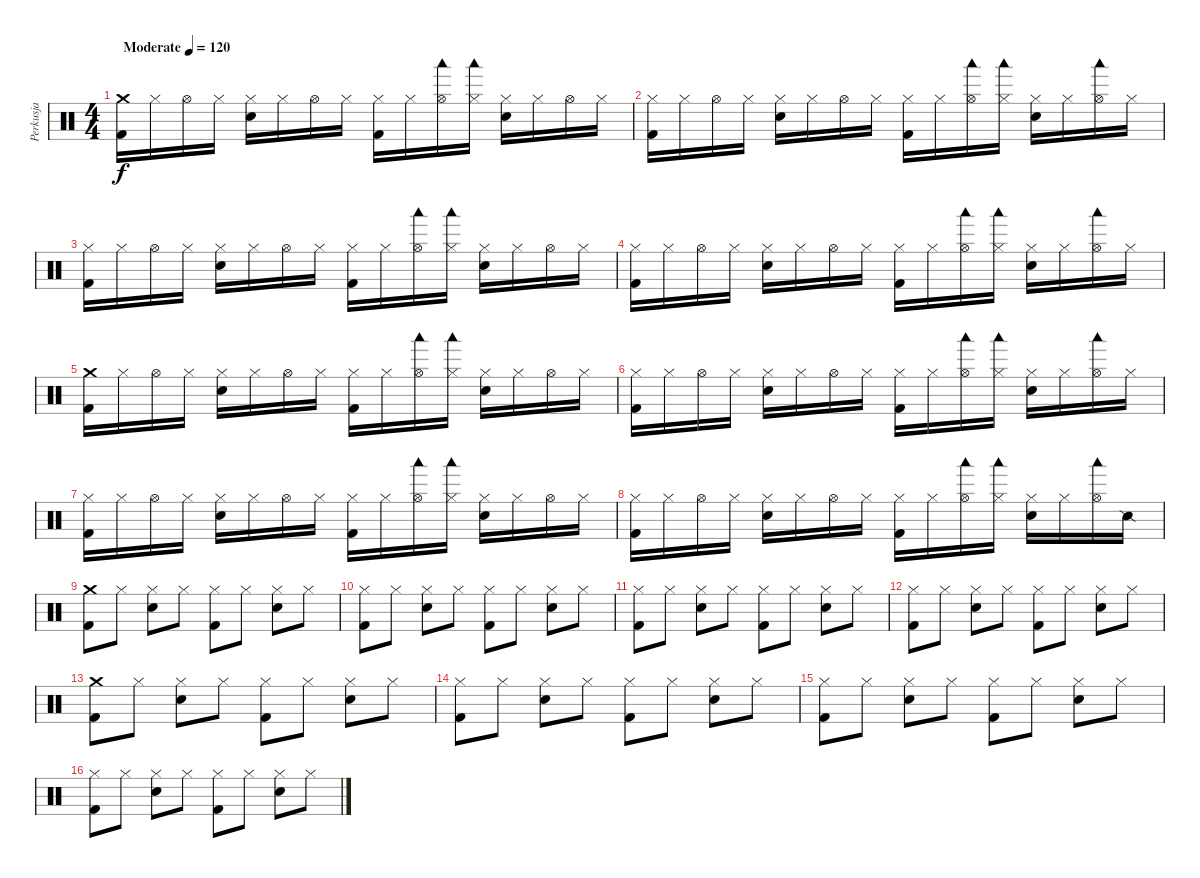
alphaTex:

\track ("Perkusja" "Perkusja") {instrument percussion}
\staff {score}
\articulation defaults
\ts (4 4)
\tempo (120 "Moderate")
\clef neutral
\ks c
("Crash medium (hit)" "Kick (hit) 2").16{dy f} "Hi-Hat (closed)".16 "Hi-Hat (open)".16 "Hi-Hat (closed)".16 ("Hi-Hat (closed)" "Snare (hit) 2").16 "Hi-Hat (closed)".16 "Hi-Hat (open)".16 "Hi-Hat (closed)".16 ("Hi-Hat (closed)" "Kick (hit) 2").16 "Hi-Hat (closed)".16 ("Hi-Hat (open)" "Woodblock low (hit)").16 ("Hi-Hat (closed)" "Woodblock low (hit)").16 ("Hi-Hat (closed)" "Snare (hit) 2").16 "Hi-Hat (closed)".16 "Hi-Hat (open)".16 "Hi-Hat (closed)".16 |
("Hi-Hat (closed)" "Kick (hit) 2").16 "Hi-Hat (closed)".16 "Hi-Hat (open)".16 "Hi-Hat (closed)".16 ("Hi-Hat (closed)" "Snare (hit) 2").16 "Hi-Hat (closed)".16 "Hi-Hat (open)".16 "Hi-Hat (closed)".16 ("Hi-Hat (closed)" "Kick (hit) 2").16 "Hi-Hat (closed)".16 ("Hi-Hat (open)" "Woodblock low (hit)").16 ("Hi-Hat (closed)" "Woodblock low (hit)").16 ("Hi-Hat (closed)" "Snare (hit) 2").16 "Hi-Hat (closed)".16 ("Hi-Hat (open)" "Woodblock low (hit)").16 "Hi-Hat (closed)".16 |
("Hi-Hat (closed)" "Kick (hit) 2").16 "Hi-Hat (closed)".16 "Hi-Hat (open)".16 "Hi-Hat (closed)".16 ("Hi-Hat (closed)" "Snare (hit) 2").16 "Hi-Hat (closed)".16 "Hi-Hat (open)".16 "Hi-Hat (closed)".16 ("Hi-Hat (closed)" "Kick (hit) 2").16 "Hi-Hat (closed)".16 ("Hi-Hat (open)" "Woodblock low (hit)").16 ("Hi-Hat (closed)" "Woodblock low (hit)").16 ("Hi-Hat (closed)" "Snare (hit) 2").16 "Hi-Hat (closed)".16 "Hi-Hat (open)".16 "Hi-Hat (closed)".16 |
("Hi-Hat (closed)" "Kick (hit) 2").16 "Hi-Hat (closed)".16 "Hi-Hat (open)".16 "Hi-Hat (closed)".16 ("Hi-Hat (closed)" "Snare (hit) 2").16 "Hi-Hat (closed)".16 "Hi-Hat (open)".16 "Hi-Hat (closed)".16 ("Hi-Hat (closed)" "Kick (hit) 2").16 "Hi-Hat (closed)".16 ("Hi-Hat (open)" "Woodblock low (hit)").16 ("Hi-Hat (closed)" "Woodblock low (hit)").16 ("Hi-Hat (closed)" "Snare (hit) 2").16 "Hi-Hat (closed)".16 ("Hi-Hat (open)" "Woodblock low (hit)").16 "Hi-Hat (closed)".16 |
("Crash medium (hit)" "Kick (hit) 2").16 "Hi-Hat (closed)".16 "Hi-Hat (open)".16 "Hi-Hat (closed)".16 ("Hi-Hat (closed)" "Snare (hit) 2").16 "Hi-Hat (closed)".16 "Hi-Hat (open)".16 "Hi-Hat (closed)".16 ("Hi-Hat (closed)" "Kick (hit) 2").16 "Hi-Hat (closed)".16 ("Hi-Hat (open)" "Woodblock low (hit)").16 ("Hi-Hat (closed)" "Woodblock low (hit)").16 ("Hi-Hat (closed)" "Snare (hit) 2").16 "Hi-Hat (closed)".16 "Hi-Hat (open)".16 "Hi-Hat (closed)".16 |
("Hi-Hat (closed)" "Kick (hit) 2").16 "Hi-Hat (closed)".16 "Hi-Hat (open)".16 "Hi-Hat (closed)".16 ("Hi-Hat (closed)" "Snare (hit) 2").16 "Hi-Hat (closed)".16 "Hi-Hat (open)".16 "Hi-Hat (closed)".16 ("Hi-Hat (closed)" "Kick (hit) 2").16 "Hi-Hat (closed)".16 ("Hi-Hat (open)" "Woodblock low (hit)").16 ("Hi-Hat (closed)" "Woodblock low (hit)").16 ("Hi-Hat (closed)" "Snare (hit) 2").16 "Hi-Hat (closed)".16 ("Hi-Hat (open)" "Woodblock low (hit)").16 "Hi-Hat (closed)".16 |
("Hi-Hat (closed)" "Kick (hit) 2").16 "Hi-Hat (closed)".16 "Hi-Hat (open)".16 "Hi-Hat (closed)".16 ("Hi-Hat (closed)" "Snare (hit) 2").16 "Hi-Hat (closed)".16 "Hi-Hat (open)".16 "Hi-Hat (closed)".16 ("Hi-Hat (closed)" "Kick (hit) 2").16 "Hi-Hat (closed)".16 ("Hi-Hat (open)" "Woodblock low (hit)").16 ("Hi-Hat (closed)" "Woodblock low (hit)").16 ("Hi-Hat (closed)" "Snare (hit) 2").16 "Hi-Hat (closed)".16 "Hi-Hat (open)".16 "Hi-Hat (closed)".16 |
("Hi-Hat (closed)" "Kick (hit) 2").16 "Hi-Hat (closed)".16 "Hi-Hat (open)".16 "Hi-Hat (closed)".16 ("Hi-Hat (closed)" "Snare (hit) 2").16 "Hi-Hat (closed)".16 "Hi-Hat (open)".16 "Hi-Hat (closed)".16 ("Hi-Hat (closed)" "Kick (hit) 2").16 "Hi-Hat (closed)".16 ("Hi-Hat (open)" "Woodblock low (hit)").16 ("Hi-Hat (closed)" "Woodblock low (hit)").16 ("Hi-Hat (closed)" "Snare (hit) 2").16 "Hi-Hat (closed)".16 ("Hi-Hat (open)" "Woodblock low (hit)").16 "Snare (side stick) 2".16 |
("Crash medium (hit)" "Kick (hit) 2").8 "Hi-Hat (closed)".8 ("Hi-Hat (closed)" "Snare (hit) 2").8 "Hi-Hat (closed)".8 ("Hi-Hat (closed)" "Kick (hit) 2").8 "Hi-Hat (closed)".8 ("Hi-Hat (closed)" "Snare (hit) 2").8 "Hi-Hat (closed)".8 |
("Hi-Hat (closed)" "Kick (hit) 2").8 "Hi-Hat (closed)".8 ("Hi-Hat (closed)" "Snare (hit) 2").8 "Hi-Hat (closed)".8 ("Hi-Hat (closed)" "Kick (hit) 2").8 "Hi-Hat (closed)".8 ("Hi-Hat (closed)" "Snare (hit) 2").8 "Hi-Hat (closed)".8 |
("Hi-Hat (closed)" "Kick (hit) 2").8 "Hi-Hat (closed)".8 ("Hi-Hat (closed)" "Snare (hit) 2").8 "Hi-Hat (closed)".8 ("Hi-Hat (closed)" "Kick (hit) 2").8 "Hi-Hat (closed)".8 ("Hi-Hat (closed)" "Snare (hit) 2").8 "Hi-Hat (closed)".8 |
("Hi-Hat (closed)" "Kick (hit) 2").8 "Hi-Hat (closed)".8 ("Hi-Hat (closed)" "Snare (hit) 2").8 "Hi-Hat (closed)".8 ("Hi-Hat (closed)" "Kick (hit) 2").8 "Hi-Hat (closed)".8 ("Hi-Hat (closed)" "Snare (hit) 2").8 "Hi-Hat (closed)".8 |
("Crash medium (hit)" "Kick (hit) 2").8 "Hi-Hat (closed)".8 ("Hi-Hat (closed)" "Snare (hit) 2").8 "Hi-Hat (closed)".8 ("Hi-Hat (closed)" "Kick (hit) 2").8 "Hi-Hat (closed)".8 ("Hi-Hat (closed)" "Snare (hit) 2").8 "Hi-Hat (closed)".8 |
("Hi-Hat (closed)" "Kick (hit) 2").8 "Hi-Hat (closed)".8 ("Hi-Hat (closed)" "Snare (hit) 2").8 "Hi-Hat (closed)".8 ("Hi-Hat (closed)" "Kick (hit) 2").8 "Hi-Hat (closed)".8 ("Hi-Hat (closed)" "Snare (hit) 2").8 "Hi-Hat (closed)".8 |
("Hi-Hat (closed)" "Kick (hit) 2").8 "Hi-Hat (closed)".8 ("Hi-Hat (closed)" "Snare (hit) 2").8 "Hi-Hat (closed)".8 ("Hi-Hat (closed)" "Kick (hit) 2").8 "Hi-Hat (closed)".8 ("Hi-Hat (closed)" "Snare (hit) 2").8 "Hi-Hat (closed)".8 |
("Hi-Hat (closed)" "Kick (hit) 2").8 "Hi-Hat (closed)".8 ("Hi-Hat (closed)" "Snare (hit) 2").8 "Hi-Hat (closed)".8 ("Hi-Hat (closed)" "Kick (hit) 2").8 "Hi-Hat (closed)".8 ("Hi-Hat (closed)" "Snare (hit) 2").8 "Hi-Hat (closed)".8
